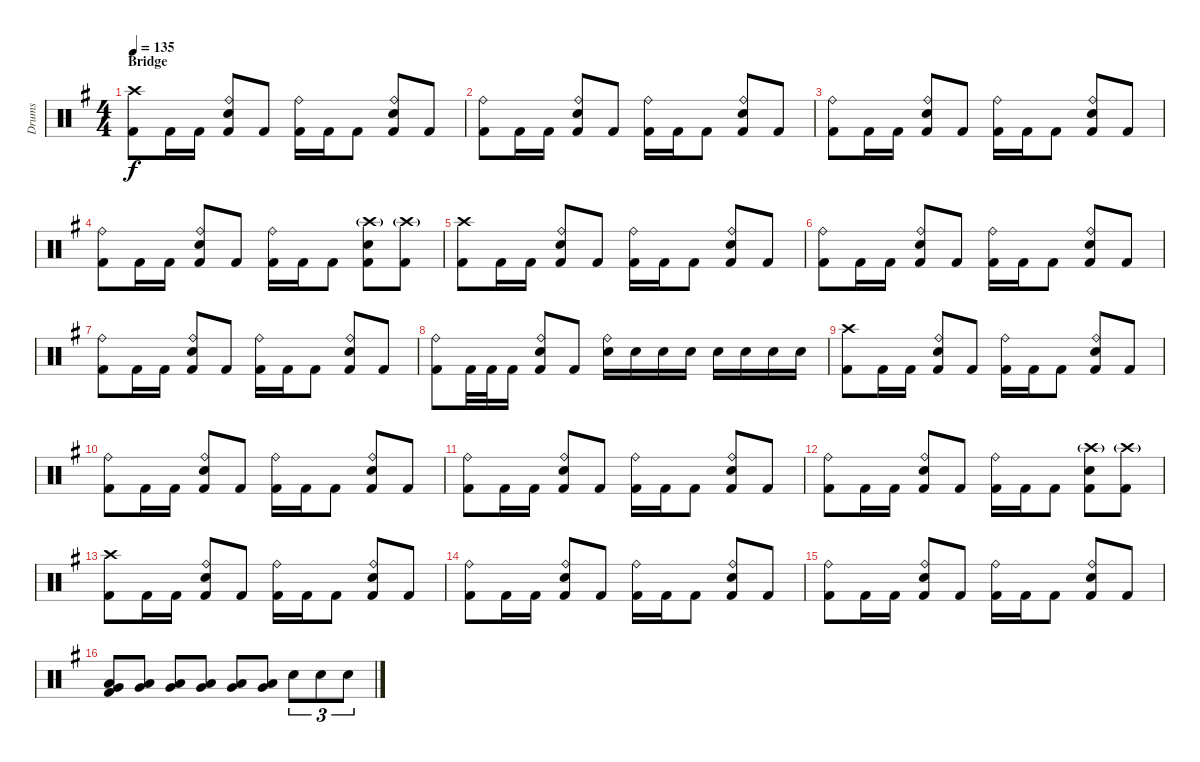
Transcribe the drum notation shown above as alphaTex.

\track ("Drums" "Drums") {instrument percussion}
\staff {score}
\articulation defaults
\ts (4 4)
\section ("" "Bridge")
\tempo 135
\clef neutral
\ks eminor
("Crash high (hit)" "Kick (hit) 2").8{dy f} "Kick (hit) 2".16 "Kick (hit) 2".16 ("Ride (bell)" "Snare (hit) 2" "Kick (hit) 2").8 "Kick (hit) 2".8 ("Ride (bell)" "Kick (hit) 2").16 "Kick (hit) 2".16 "Kick (hit) 2".8 ("Ride (bell)" "Snare (hit) 2" "Kick (hit) 2").8 "Kick (hit) 2".8 |
("Ride (bell)" "Kick (hit) 2").8 "Kick (hit) 2".16 "Kick (hit) 2".16 ("Ride (bell)" "Snare (hit) 2" "Kick (hit) 2").8 "Kick (hit) 2".8 ("Ride (bell)" "Kick (hit) 2").16 "Kick (hit) 2".16 "Kick (hit) 2".8 ("Ride (bell)" "Snare (hit) 2" "Kick (hit) 2").8 "Kick (hit) 2".8 |
("Ride (bell)" "Kick (hit) 2").8 "Kick (hit) 2".16 "Kick (hit) 2".16 ("Ride (bell)" "Snare (hit) 2" "Kick (hit) 2").8 "Kick (hit) 2".8 ("Ride (bell)" "Kick (hit) 2").16 "Kick (hit) 2".16 "Kick (hit) 2".8 ("Ride (bell)" "Snare (hit) 2" "Kick (hit) 2").8 "Kick (hit) 2".8 |
("Ride (bell)" "Kick (hit) 2").8 "Kick (hit) 2".16 "Kick (hit) 2".16 ("Ride (bell)" "Snare (hit) 2" "Kick (hit) 2").8 "Kick (hit) 2".8 ("Ride (bell)" "Kick (hit) 2").16 "Kick (hit) 2".16 "Kick (hit) 2".8 ("Crash high (hit)"{g} "Snare (hit) 2" "Kick (hit) 2").8 ("Crash high (hit)"{g} "Kick (hit) 2").8 |
("Crash high (hit)" "Kick (hit) 2").8 "Kick (hit) 2".16 "Kick (hit) 2".16 ("Ride (bell)" "Snare (hit) 2" "Kick (hit) 2").8 "Kick (hit) 2".8 ("Ride (bell)" "Kick (hit) 2").16 "Kick (hit) 2".16 "Kick (hit) 2".8 ("Ride (bell)" "Snare (hit) 2" "Kick (hit) 2").8 "Kick (hit) 2".8 |
("Ride (bell)" "Kick (hit) 2").8 "Kick (hit) 2".16 "Kick (hit) 2".16 ("Ride (bell)" "Snare (hit) 2" "Kick (hit) 2").8 "Kick (hit) 2".8 ("Ride (bell)" "Kick (hit) 2").16 "Kick (hit) 2".16 "Kick (hit) 2".8 ("Ride (bell)" "Snare (hit) 2" "Kick (hit) 2").8 "Kick (hit) 2".8 |
("Ride (bell)" "Kick (hit) 2").8 "Kick (hit) 2".16 "Kick (hit) 2".16 ("Ride (bell)" "Snare (hit) 2" "Kick (hit) 2").8 "Kick (hit) 2".8 ("Ride (bell)" "Kick (hit) 2").16 "Kick (hit) 2".16 "Kick (hit) 2".8 ("Ride (bell)" "Snare (hit) 2" "Kick (hit) 2").8 "Kick (hit) 2".8 |
("Ride (bell)" "Kick (hit) 2").8 "Kick (hit) 2".32 "Kick (hit) 2".32 "Kick (hit) 2".16 ("Ride (bell)" "Snare (hit) 2" "Kick (hit) 2").8 "Kick (hit) 2".8 ("Ride (bell)" "Snare (hit) 2").16 "Snare (hit) 2".16 "Snare (hit) 2".16 "Snare (hit) 2".16 "Snare (hit) 2".16 "Snare (hit) 2".16 "Snare (hit) 2".16 "Snare (hit) 2".16 |
("Crash high (hit)" "Kick (hit) 2").8 "Kick (hit) 2".16 "Kick (hit) 2".16 ("Ride (bell)" "Snare (hit) 2" "Kick (hit) 2").8 "Kick (hit) 2".8 ("Ride (bell)" "Kick (hit) 2").16 "Kick (hit) 2".16 "Kick (hit) 2".8 ("Ride (bell)" "Snare (hit) 2" "Kick (hit) 2").8 "Kick (hit) 2".8 |
("Ride (bell)" "Kick (hit) 2").8 "Kick (hit) 2".16 "Kick (hit) 2".16 ("Ride (bell)" "Snare (hit) 2" "Kick (hit) 2").8 "Kick (hit) 2".8 ("Ride (bell)" "Kick (hit) 2").16 "Kick (hit) 2".16 "Kick (hit) 2".8 ("Ride (bell)" "Snare (hit) 2" "Kick (hit) 2").8 "Kick (hit) 2".8 |
("Ride (bell)" "Kick (hit) 2").8 "Kick (hit) 2".16 "Kick (hit) 2".16 ("Ride (bell)" "Snare (hit) 2" "Kick (hit) 2").8 "Kick (hit) 2".8 ("Ride (bell)" "Kick (hit) 2").16 "Kick (hit) 2".16 "Kick (hit) 2".8 ("Ride (bell)" "Snare (hit) 2" "Kick (hit) 2").8 "Kick (hit) 2".8 |
("Ride (bell)" "Kick (hit) 2").8 "Kick (hit) 2".16 "Kick (hit) 2".16 ("Ride (bell)" "Snare (hit) 2" "Kick (hit) 2").8 "Kick (hit) 2".8 ("Ride (bell)" "Kick (hit) 2").16 "Kick (hit) 2".16 "Kick (hit) 2".8 ("Crash high (hit)"{g} "Snare (hit) 2" "Kick (hit) 2").8 ("Crash high (hit)"{g} "Kick (hit) 2").8 |
("Crash high (hit)" "Kick (hit) 2").8 "Kick (hit) 2".16 "Kick (hit) 2".16 ("Ride (bell)" "Snare (hit) 2" "Kick (hit) 2").8 "Kick (hit) 2".8 ("Ride (bell)" "Kick (hit) 2").16 "Kick (hit) 2".16 "Kick (hit) 2".8 ("Ride (bell)" "Snare (hit) 2" "Kick (hit) 2").8 "Kick (hit) 2".8 |
("Ride (bell)" "Kick (hit) 2").8 "Kick (hit) 2".16 "Kick (hit) 2".16 ("Ride (bell)" "Snare (hit) 2" "Kick (hit) 2").8 "Kick (hit) 2".8 ("Ride (bell)" "Kick (hit) 2").16 "Kick (hit) 2".16 "Kick (hit) 2".8 ("Ride (bell)" "Snare (hit) 2" "Kick (hit) 2").8 "Kick (hit) 2".8 |
("Ride (bell)" "Kick (hit) 2").8 "Kick (hit) 2".16 "Kick (hit) 2".16 ("Ride (bell)" "Snare (hit) 2" "Kick (hit) 2").8 "Kick (hit) 2".8 ("Ride (bell)" "Kick (hit) 2").16 "Kick (hit) 2".16 "Kick (hit) 2".8 ("Ride (bell)" "Snare (hit) 2" "Kick (hit) 2").8 "Kick (hit) 2".8 |
("Very Low Tom (hit)" "Low Floor Tom (hit)" "Kick (hit) 2").8 ("Very Low Tom (hit)" "Low Floor Tom (hit)").8 ("Very Low Tom (hit)" "Low Floor Tom (hit)").8 ("Very Low Tom (hit)" "Low Floor Tom (hit)").8 ("Very Low Tom (hit)" "Low Floor Tom (hit)").8 ("Low Tom (hit)" "Very Low Tom (hit)").8 "Snare (hit) 2".8{tu (3 2)} "Snare (hit) 2".8{tu (3 2)} "Snare (hit) 2".8{tu (3 2)}
